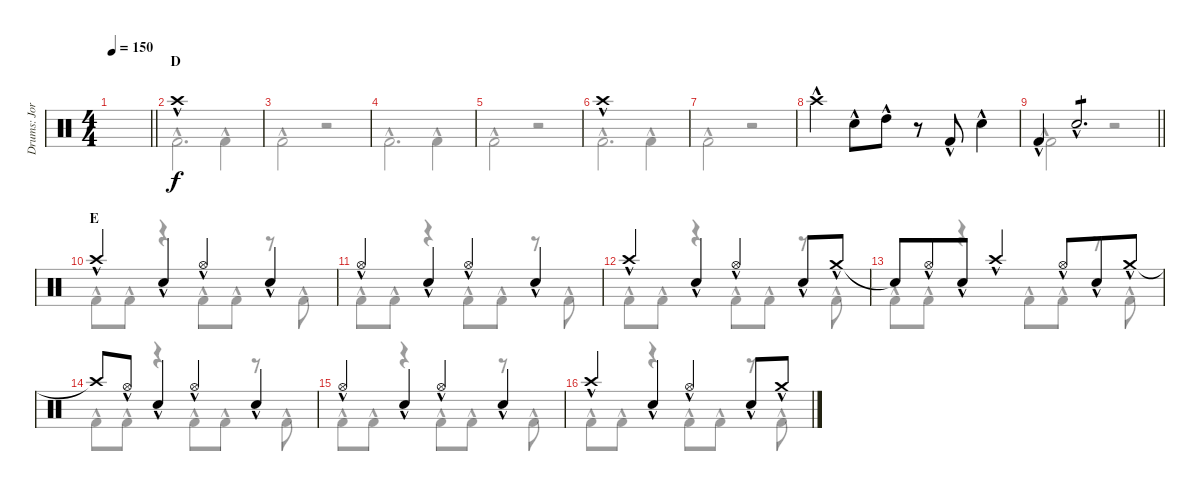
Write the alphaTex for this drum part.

\track ("Drums: Jorg" "Drums: Jor") {instrument percussion}
\staff {score}
\articulation defaults
\voice
\ts (4 4)
\tempo 150
\clef neutral
\barLineRight lightlight
\ks c
|
\section ("" "D")
"Crash high (hit)"{hac}.1 |
|
|
|
"Crash high (hit)"{hac}.1 |
|
"Crash high (hit)"{hac}.4 "Snare (hit) 2"{hac}.8 "High Tom (hit)"{hac}.8 r.8 "Kick (hit) 2"{hac}.8 "Snare (hit) 2"{hac}.4 |
\barLineRight lightlight "Kick (hit) 2"{hac}.4 "Snare (hit) 2"{hac}.2{d tp 1}
|
\section ("" "E")
"Crash high (hit)"{hac}.4{beam merge} "Snare (hit) 2"{hac}.4 "Hi-Hat (open)"{hac}.4{beam merge} "Snare (hit) 2"{hac}.4 |
"Hi-Hat (open)"{hac}.4{beam merge} "Snare (hit) 2"{hac}.4 "Hi-Hat (open)"{hac}.4{beam merge} "Snare (hit) 2"{hac}.4 |
"Crash high (hit)"{hac}.4{beam merge} "Snare (hit) 2"{hac}.4 "Hi-Hat (open)"{hac}.4{beam merge} "Snare (hit) 2"{hac}.8 "Crash medium (hit)"{hac}.8 |
"Snare (hit)"{t}.8 "Hi-Hat (open)"{hac}.8{beam merge} "Snare (hit) 2"{hac}.8 "Crash high (hit)"{hac}.4 "Hi-Hat (open)"{hac}.8{beam merge} "Snare (hit) 2"{hac}.8 "Crash medium (hit)"{hac}.8 |
"Crash high (hit)"{t}.8 "Hi-Hat (open)"{hac}.8{beam merge} "Snare (hit) 2"{hac}.4 "Hi-Hat (open)"{hac}.4{beam merge} "Snare (hit) 2"{hac}.4 |
"Hi-Hat (open)"{hac}.4{beam merge} "Snare (hit) 2"{hac}.4 "Hi-Hat (open)"{hac}.4{beam merge} "Snare (hit) 2"{hac}.4 |
"Crash high (hit)"{hac}.4{beam merge} "Snare (hit) 2"{hac}.4 "Hi-Hat (open)"{hac}.4{beam merge} "Snare (hit) 2"{hac}.8 "Crash medium (hit)"{hac}.8
\voice
\clef neutral
\ottava regular
\simile none
\barLineRight lightlight
\ks c
|
"Kick (hit) 2"{hac}.2{d} "Kick (hit) 2"{hac}.4 |
"Kick (hit) 2"{hac}.2 r.2 |
"Kick (hit) 2"{hac}.2{d} "Kick (hit) 2"{hac}.4 |
"Kick (hit) 2"{hac}.2 r.2 |
"Kick (hit) 2"{hac}.2{d} "Kick (hit) 2"{hac}.4 |
"Kick (hit) 2"{hac}.2 r.2 |
|
\barLineRight lightlight "Kick (hit) 2"{hac}.2
r.2 |
"Kick (hit) 2"{hac}.8 "Kick (hit) 2"{hac}.8 r.4 "Kick (hit) 2"{hac}.8 "Kick (hit) 2"{hac}.8 r.8 "Kick (hit) 2"{hac}.8 |
"Kick (hit) 2"{hac}.8 "Kick (hit) 2"{hac}.8 r.4 "Kick (hit) 2"{hac}.8 "Kick (hit) 2"{hac}.8 r.8 "Kick (hit) 2"{hac}.8 |
"Kick (hit) 2"{hac}.8 "Kick (hit) 2"{hac}.8 r.4 "Kick (hit) 2"{hac}.8 "Kick (hit) 2"{hac}.8 r.8 "Kick (hit) 2"{hac}.8 |
"Kick (hit) 2"{hac}.8 "Kick (hit) 2"{hac}.8 r.4 "Kick (hit) 2"{hac}.8 "Kick (hit) 2"{hac}.8 r.8 "Kick (hit) 2"{hac}.8 |
"Kick (hit) 2"{hac}.8 "Kick (hit) 2"{hac}.8 r.4 "Kick (hit) 2"{hac}.8 "Kick (hit) 2"{hac}.8 r.8 "Kick (hit) 2"{hac}.8 |
"Kick (hit) 2"{hac}.8 "Kick (hit) 2"{hac}.8 r.4 "Kick (hit) 2"{hac}.8 "Kick (hit) 2"{hac}.8 r.8 "Kick (hit) 2"{hac}.8 |
"Kick (hit) 2"{hac}.8 "Kick (hit) 2"{hac}.8 r.4 "Kick (hit) 2"{hac}.8 "Kick (hit) 2"{hac}.8 r.8 "Kick (hit) 2"{hac}.8
